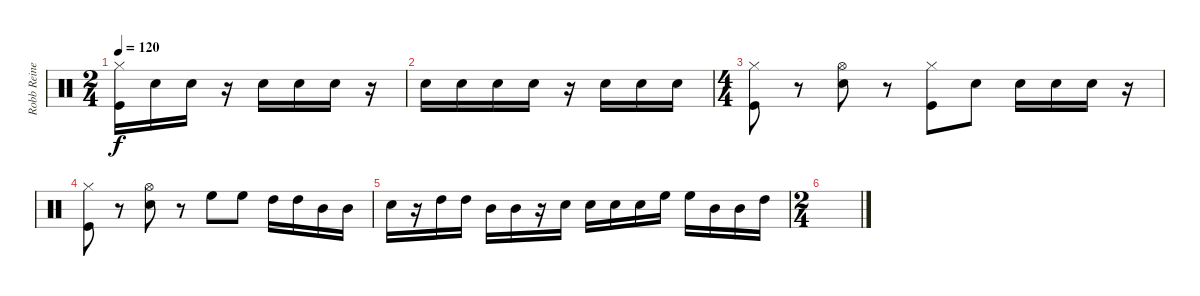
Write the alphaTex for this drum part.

\track ("Robb Reiner" "Robb Reine") {instrument percussion}
\staff {score}
\articulation defaults
\ts (2 4)
\tempo 120
\clef neutral
\ks c
("Hi-Hat (closed)" "Kick (hit)").16{dy f} "Snare (hit) 2".16 "Snare (hit) 2".16 r.16 "Snare (hit) 2".16 "Snare (hit) 2".16 "Snare (hit) 2".16 r.16 |
"Snare (hit) 2".16 "Snare (hit) 2".16 "Snare (hit) 2".16 "Snare (hit) 2".16 r.16 "Snare (hit) 2".16 "Snare (hit) 2".16 "Snare (hit) 2".16 |
\ts (4 4)
("Hi-Hat (closed)" "Kick (hit)").8 r.8 ("Hi-Hat (open)" "Snare (hit) 2").8 r.8 ("Hi-Hat (closed)" "Kick (hit)").8 "Snare (hit) 2".8 "Snare (hit) 2".16 "Snare (hit) 2".16 "Snare (hit) 2".16 r.16 |
("Hi-Hat (closed)" "Kick (hit)").8 r.8 ("Hi-Hat (open)" "Snare (hit) 2").8 r.8 "High Floor Tom (hit)".8 "High Floor Tom (hit)".8 "High Tom (hit)".16 "High Tom (hit)".16 "Mid Tom (hit)".16 "Mid Tom (hit)".16 |
"Snare (hit) 2".16 r.16 "High Tom (hit)".16 "High Tom (hit)".16 "Mid Tom (hit)".16 "Mid Tom (hit)".16 r.16 "Snare (hit) 2".16 "Snare (hit) 2".16 "Snare (hit) 2".16 "Snare (hit) 2".16 "High Floor Tom (hit)".16 "High Floor Tom (hit)".16 "Mid Tom (hit)".16 "Mid Tom (hit)".16 "High Tom (hit)".16 |
\ts (2 4)
